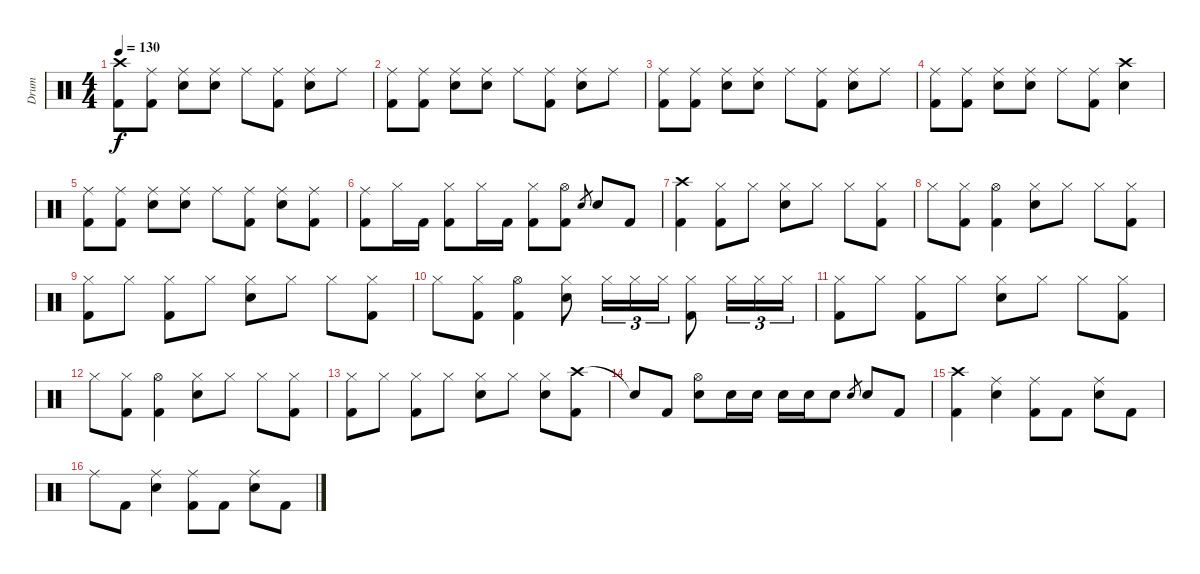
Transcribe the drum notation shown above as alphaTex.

\track ("Drum" "Drum") {instrument percussion}
\staff {score}
\articulation defaults
\ts (4 4)
\tempo 130
\clef neutral
\ks c
("Crash high (hit)" "Kick (hit) 2").8{dy f} ("Ride (middle)" "Kick (hit) 2").8 ("Ride (middle)" "Electric Snare (hit)").8 ("Ride (middle)" "Electric Snare (hit)").8 "Ride (middle)".8 ("Ride (middle)" "Kick (hit) 2").8 ("Ride (middle)" "Electric Snare (hit)").8 "Ride (middle)".8 |
("Ride (middle)" "Kick (hit) 2").8 ("Ride (middle)" "Kick (hit) 2").8 ("Ride (middle)" "Electric Snare (hit)").8 ("Ride (middle)" "Electric Snare (hit)").8 "Ride (middle)".8 ("Ride (middle)" "Kick (hit) 2").8 ("Ride (middle)" "Electric Snare (hit)").8 "Ride (middle)".8 |
("Ride (middle)" "Kick (hit) 2").8 ("Ride (middle)" "Kick (hit) 2").8 ("Ride (middle)" "Electric Snare (hit)").8 ("Ride (middle)" "Electric Snare (hit)").8 "Ride (middle)".8 ("Ride (middle)" "Kick (hit) 2").8 ("Ride (middle)" "Electric Snare (hit)").8 "Ride (middle)".8 |
("Ride (middle)" "Kick (hit) 2").8 ("Ride (middle)" "Kick (hit) 2").8 ("Ride (middle)" "Electric Snare (hit)").8 ("Ride (middle)" "Electric Snare (hit)").8 "Ride (middle)".8 ("Ride (middle)" "Kick (hit) 2").8 ("Crash high (hit)" "Electric Snare (hit)").4 |
("Ride (middle)" "Kick (hit) 2").8 ("Ride (middle)" "Kick (hit) 2").8 ("Ride (middle)" "Electric Snare (hit)").8 ("Ride (middle)" "Electric Snare (hit)").8 "Ride (middle)".8 ("Ride (middle)" "Kick (hit) 2").8 ("Ride (middle)" "Electric Snare (hit)").8 ("Ride (middle)" "Kick (hit) 2").8 |
("Ride (middle)" "Kick (hit) 2").8 "Hi-Hat (closed)".16 "Kick (hit) 2".16 ("Hi-Hat (closed)" "Kick (hit) 2").8 "Hi-Hat (closed)".16 "Kick (hit) 2".16 ("Hi-Hat (closed)" "Kick (hit) 2").8 ("Hi-Hat (open)" "Kick (hit) 2").8 "Electric Snare (hit)".8{gr} "Electric Snare (hit)".8 "Kick (hit) 2".8 |
("Crash high (hit)" "Kick (hit) 2").4 ("Hi-Hat (closed)" "Kick (hit) 2").8 "Hi-Hat (closed)".8 ("Hi-Hat (closed)" "Electric Snare (hit)").8 "Hi-Hat (closed)".8 "Hi-Hat (closed)".8 ("Hi-Hat (closed)" "Kick (hit) 2").8 |
"Hi-Hat (closed)".8 ("Hi-Hat (closed)" "Kick (hit) 2").8 ("Hi-Hat (open)" "Kick (hit) 2").4 ("Hi-Hat (closed)" "Electric Snare (hit)").8 "Hi-Hat (closed)".8 "Hi-Hat (closed)".8 ("Hi-Hat (closed)" "Kick (hit) 2").8 |
("Hi-Hat (closed)" "Kick (hit) 2").8 "Hi-Hat (closed)".8 ("Hi-Hat (closed)" "Kick (hit) 2").8 "Hi-Hat (closed)".8 ("Hi-Hat (closed)" "Electric Snare (hit)").8 "Hi-Hat (closed)".8 "Hi-Hat (closed)".8 ("Hi-Hat (closed)" "Kick (hit) 2").8 |
"Hi-Hat (closed)".8 ("Hi-Hat (closed)" "Kick (hit) 2").8 ("Hi-Hat (open)" "Kick (hit) 2").4 ("Hi-Hat (closed)" "Electric Snare (hit)").8 "Hi-Hat (closed)".16{tu (3 2)} "Hi-Hat (closed)".16{tu (3 2)} "Hi-Hat (closed)".16{tu (3 2)} ("Hi-Hat (closed)" "Kick (hit) 2").8 "Hi-Hat (closed)".16{tu (3 2)} "Hi-Hat (closed)".16{tu (3 2)} "Hi-Hat (closed)".16{tu (3 2)} |
("Hi-Hat (closed)" "Kick (hit) 2").8 "Hi-Hat (closed)".8 ("Hi-Hat (closed)" "Kick (hit) 2").8 "Hi-Hat (closed)".8 ("Hi-Hat (closed)" "Electric Snare (hit)").8 "Hi-Hat (closed)".8 "Hi-Hat (closed)".8 ("Hi-Hat (closed)" "Kick (hit) 2").8 |
"Hi-Hat (closed)".8 ("Hi-Hat (closed)" "Kick (hit) 2").8 ("Hi-Hat (open)" "Kick (hit) 2").4 ("Hi-Hat (closed)" "Electric Snare (hit)").8 "Hi-Hat (closed)".8 "Hi-Hat (closed)".8 ("Hi-Hat (closed)" "Kick (hit) 2").8 |
("Hi-Hat (closed)" "Kick (hit) 2").8 "Hi-Hat (closed)".8 ("Hi-Hat (closed)" "Kick (hit) 2").8 "Hi-Hat (closed)".8 ("Hi-Hat (closed)" "Electric Snare (hit)").8 "Hi-Hat (closed)".8 ("Hi-Hat (closed)" "Electric Snare (hit)").8 ("Crash high (hit)" "Kick (hit) 2").8 |
"Snare (hit)"{t}.8 "Kick (hit) 2".8 ("Hi-Hat (open)" "Electric Snare (hit)").8 "Electric Snare (hit)".16 "Electric Snare (hit)".16 "Electric Snare (hit)".16 "Electric Snare (hit)".16 "Electric Snare (hit)".8 "Electric Snare (hit)".8{gr} "Electric Snare (hit)".8 "Kick (hit) 2".8 |
("Crash high (hit)" "Kick (hit) 2").4 ("Ride (middle)" "Electric Snare (hit)").4 ("Ride (middle)" "Kick (hit) 2").8 "Kick (hit) 2".8 ("Ride (middle)" "Electric Snare (hit)").8 "Kick (hit) 2".8 |
"Ride (middle)".8 "Kick (hit) 2".8 ("Ride (middle)" "Electric Snare (hit)").4 ("Ride (middle)" "Kick (hit) 2").8 "Kick (hit) 2".8 ("Ride (middle)" "Electric Snare (hit)").8 "Kick (hit) 2".8
